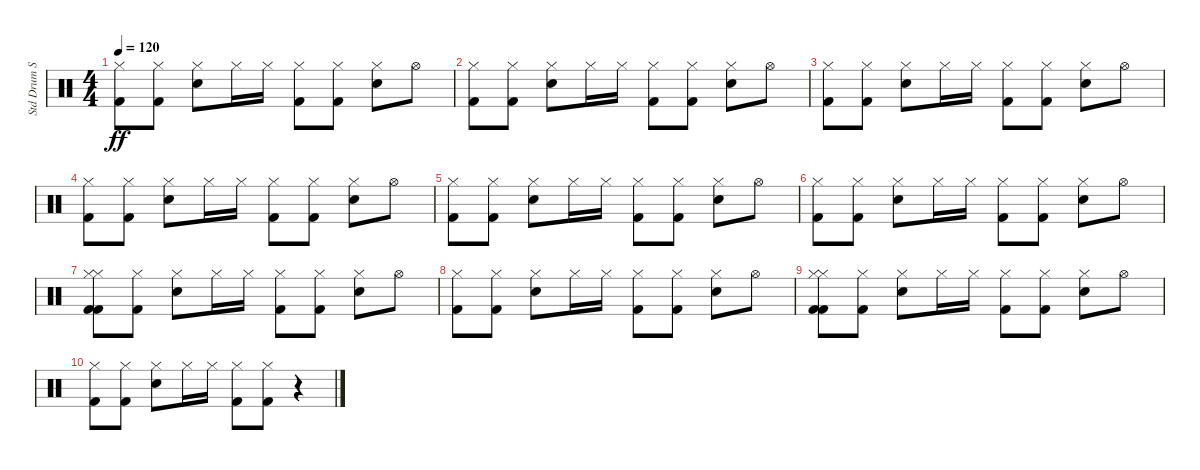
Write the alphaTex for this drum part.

\track ("Std Drum Set 1" "Std Drum S") {instrument percussion}
\staff {score}
\articulation defaults
\ts (4 4)
\tempo 120
\clef neutral
\ks c
("Hi-Hat (closed)" "Kick (hit) 2").8{dy ff} ("Kick (hit) 2" "Hi-Hat (closed)").8 ("Snare (hit) 2" "Hi-Hat (closed)").8 "Hi-Hat (closed)".16 "Hi-Hat (closed)".16 ("Hi-Hat (closed)" "Kick (hit) 2").8 ("Hi-Hat (closed)" "Kick (hit) 2").8 ("Hi-Hat (closed)" "Snare (hit) 2").8 "Hi-Hat (open)".8 |
("Hi-Hat (closed)" "Kick (hit) 2").8 ("Hi-Hat (closed)" "Kick (hit) 2").8 ("Hi-Hat (closed)" "Snare (hit) 2").8 "Hi-Hat (closed)".16 "Hi-Hat (closed)".16 ("Kick (hit) 2" "Hi-Hat (closed)").8 ("Kick (hit) 2" "Hi-Hat (closed)").8 ("Snare (hit) 2" "Hi-Hat (closed)").8 "Hi-Hat (open)".8 |
("Hi-Hat (closed)" "Kick (hit) 2").8 ("Hi-Hat (closed)" "Kick (hit) 2").8 ("Hi-Hat (closed)" "Snare (hit) 2").8 "Hi-Hat (closed)".16 "Hi-Hat (closed)".16 ("Hi-Hat (closed)" "Kick (hit) 2").8 ("Hi-Hat (closed)" "Kick (hit) 2").8{volume 14} ("Hi-Hat (closed)" "Snare (hit) 2").8{volume 13} "Hi-Hat (open)".8{volume 13} |
("Hi-Hat (closed)" "Kick (hit) 2").8{volume 13} ("Hi-Hat (closed)" "Kick (hit) 2").8{volume 13} ("Hi-Hat (closed)" "Snare (hit) 2").8{volume 12} "Hi-Hat (closed)".16{volume 12} "Hi-Hat (closed)".16{volume 12} ("Kick (hit) 2" "Hi-Hat (closed)").8{volume 12} ("Kick (hit) 2" "Hi-Hat (closed)").8{volume 12} ("Snare (hit) 2" "Hi-Hat (closed)").8{volume 11} "Hi-Hat (open)".8{volume 11} |
("Hi-Hat (closed)" "Kick (hit) 2").8{volume 11} ("Hi-Hat (closed)" "Kick (hit) 2").8{volume 10} ("Hi-Hat (closed)" "Snare (hit) 2").8{volume 10} "Hi-Hat (closed)".16{volume 10} "Hi-Hat (closed)".16{volume 10} ("Hi-Hat (closed)" "Kick (hit) 2").8{volume 10} ("Hi-Hat (closed)" "Kick (hit) 2").8{volume 9} ("Hi-Hat (closed)" "Snare (hit) 2").8{volume 9} "Hi-Hat (open)".8{volume 9} |
("Hi-Hat (closed)" "Kick (hit) 2").8{volume 9} ("Hi-Hat (closed)" "Kick (hit) 2").8{volume 8} ("Hi-Hat (closed)" "Snare (hit) 2").8{volume 8} "Hi-Hat (closed)".16{volume 8} "Hi-Hat (closed)".16{volume 8} ("Hi-Hat (closed)" "Kick (hit) 2").8{volume 8} ("Hi-Hat (closed)" "Kick (hit) 2").8{volume 7} ("Hi-Hat (closed)" "Snare (hit) 2").8{volume 7} "Hi-Hat (open)".8{volume 7} |
("Hi-Hat (closed)" "Kick (hit) 2" "Hi-Hat (closed)" "Kick (hit) 2").8{volume 6} ("Hi-Hat (closed)" "Kick (hit) 2").8{volume 6} ("Hi-Hat (closed)" "Snare (hit) 2").8{volume 6} "Hi-Hat (closed)".16{volume 6} "Hi-Hat (closed)".16{volume 6} ("Hi-Hat (closed)" "Kick (hit) 2").8{volume 6} ("Hi-Hat (closed)" "Kick (hit) 2").8{volume 5} ("Hi-Hat (closed)" "Snare (hit) 2").8{volume 5} "Hi-Hat (open)".8{volume 5} |
("Hi-Hat (closed)" "Kick (hit) 2").8{volume 4} ("Hi-Hat (closed)" "Kick (hit) 2").8{volume 4} ("Hi-Hat (closed)" "Snare (hit) 2").8{volume 4} "Hi-Hat (closed)".16{volume 4} "Hi-Hat (closed)".16{volume 3} ("Kick (hit) 2" "Hi-Hat (closed)").8 ("Hi-Hat (closed)" "Kick (hit) 2").8{volume 3} ("Hi-Hat (closed)" "Snare (hit) 2").8{volume 3} "Hi-Hat (open)".8{volume 2} |
("Kick (hit) 2" "Hi-Hat (closed)" "Hi-Hat (closed)" "Kick (hit) 2").8{volume 2} ("Hi-Hat (closed)" "Kick (hit) 2").8{volume 2} ("Hi-Hat (closed)" "Snare (hit) 2").8{volume 2} "Hi-Hat (closed)".16{volume 2} "Hi-Hat (closed)".16{volume 1} ("Hi-Hat (closed)" "Kick (hit) 2").8{volume 1} ("Hi-Hat (closed)" "Kick (hit) 2").8{volume 1} ("Hi-Hat (closed)" "Snare (hit) 2").8{volume 1} "Hi-Hat (open)".8{volume 0} |
("Hi-Hat (closed)" "Kick (hit) 2").8{volume 0} ("Hi-Hat (closed)" "Kick (hit) 2").8 ("Snare (hit) 2" "Hi-Hat (closed)").8 "Hi-Hat (closed)".16 "Hi-Hat (closed)".16 ("Hi-Hat (closed)" "Kick (hit) 2").8 ("Kick (hit) 2" "Hi-Hat (closed)").8 r.4
